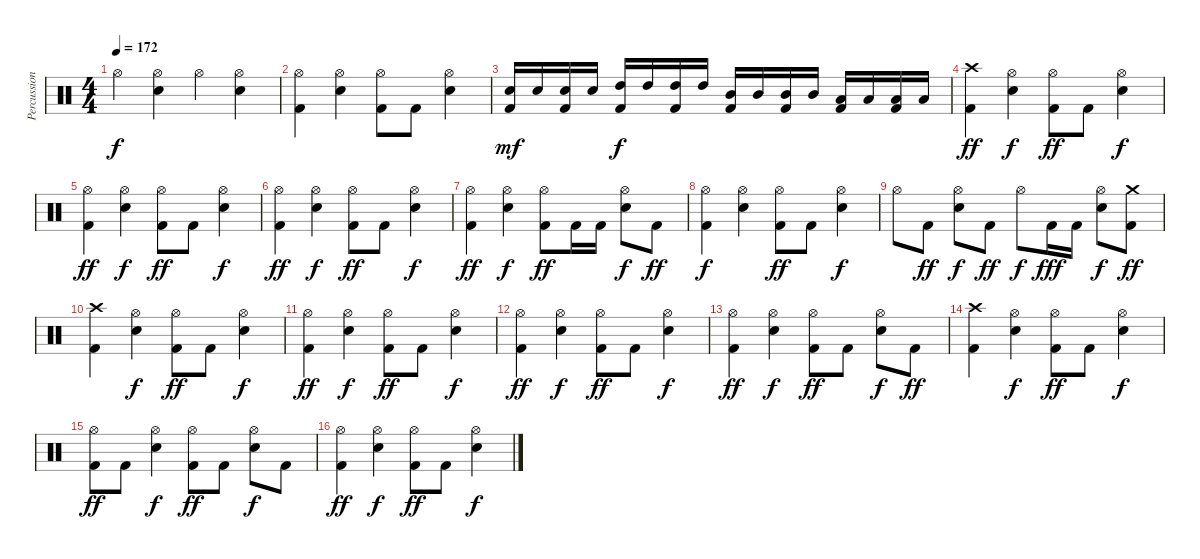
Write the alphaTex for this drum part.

\track ("Percussion" "Percussion") {instrument percussion}
\staff {score}
\articulation defaults
\ts (4 4)
\tempo 172
\clef neutral
\ks c "Hi-Hat (open)".4{dy f}
("Hi-Hat (open)" "Snare (hit) 2").4 "Hi-Hat (open)".4 ("Hi-Hat (open)" "Snare (hit) 2").4 |
("Hi-Hat (open)" "Kick (hit) 2").4 ("Hi-Hat (open)" "Snare (hit) 2").4 ("Hi-Hat (open)" "Kick (hit) 2").8 "Kick (hit) 2".8 ("Hi-Hat (open)" "Snare (hit) 2").4 |
("Snare (hit) 2" "Kick (hit) 2").16{dy mf} "Snare (hit) 2".16 ("Snare (hit) 2" "Kick (hit) 2").16 "Snare (hit) 2".16 ("High Tom (hit)" "Kick (hit) 2").16{dy f} "High Tom (hit)".16 ("High Tom (hit)" "Kick (hit) 2").16 "High Tom (hit)".16 ("Mid Tom (hit)" "Kick (hit) 2").16 "Mid Tom (hit)".16 ("Mid Tom (hit)" "Kick (hit) 2").16 "Mid Tom (hit)".16 ("Low Tom (hit)" "Kick (hit) 2").16 "Low Tom (hit)".16 ("Low Tom (hit)" "Kick (hit) 2").16 "Low Tom (hit)".16 |
("Crash high (hit)" "Kick (hit) 2").4{dy ff} ("Hi-Hat (open)" "Snare (hit) 2").4{dy f} ("Hi-Hat (open)" "Kick (hit) 2").8{dy ff} "Kick (hit) 2".8 ("Hi-Hat (open)" "Snare (hit) 2").4{dy f} |
("Hi-Hat (open)" "Kick (hit) 2").4{dy ff} ("Hi-Hat (open)" "Snare (hit) 2").4{dy f} ("Hi-Hat (open)" "Kick (hit) 2").8{dy ff} "Kick (hit) 2".8 ("Hi-Hat (open)" "Snare (hit) 2").4{dy f} |
("Hi-Hat (open)" "Kick (hit) 2").4{dy ff} ("Hi-Hat (open)" "Snare (hit) 2").4{dy f} ("Hi-Hat (open)" "Kick (hit) 2").8{dy ff} "Kick (hit) 2".8 ("Hi-Hat (open)" "Snare (hit) 2").4{dy f} |
("Hi-Hat (open)" "Kick (hit) 2").4{dy ff} ("Hi-Hat (open)" "Snare (hit) 2").4{dy f} ("Hi-Hat (open)" "Kick (hit) 2").8{dy ff} "Kick (hit) 2".16 "Kick (hit) 2".16 ("Hi-Hat (open)" "Snare (hit) 2").8{dy f} "Kick (hit) 2".8{dy ff} |
("Hi-Hat (open)" "Kick (hit) 2").4{dy f} ("Hi-Hat (open)" "Snare (hit) 2").4 ("Hi-Hat (open)" "Kick (hit) 2").8{dy ff} "Kick (hit) 2".8 ("Hi-Hat (open)" "Snare (hit) 2").4{dy f} |
"Hi-Hat (open)".8 "Kick (hit) 2".8{dy ff} ("Hi-Hat (open)" "Snare (hit) 2").8{dy f} "Kick (hit) 2".8{dy ff} "Hi-Hat (open)".8{dy f} "Kick (hit) 2".16{dy fff} "Kick (hit) 2".16 ("Hi-Hat (open)" "Snare (hit) 2").8{dy f} ("Crash medium (hit)" "Kick (hit) 2").8{dy ff} |
("Crash high (hit)" "Kick (hit) 2").4 ("Hi-Hat (open)" "Snare (hit) 2").4{dy f} ("Hi-Hat (open)" "Kick (hit) 2").8{dy ff} "Kick (hit) 2".8 ("Hi-Hat (open)" "Snare (hit) 2").4{dy f} |
("Hi-Hat (open)" "Kick (hit) 2").4{dy ff} ("Hi-Hat (open)" "Snare (hit) 2").4{dy f} ("Hi-Hat (open)" "Kick (hit) 2").8{dy ff} "Kick (hit) 2".8 ("Hi-Hat (open)" "Snare (hit) 2").4{dy f} |
("Hi-Hat (open)" "Kick (hit) 2").4{dy ff} ("Hi-Hat (open)" "Snare (hit) 2").4{dy f} ("Hi-Hat (open)" "Kick (hit) 2").8{dy ff} "Kick (hit) 2".8 ("Hi-Hat (open)" "Snare (hit) 2").4{dy f} |
("Hi-Hat (open)" "Kick (hit) 2").4{dy ff} ("Hi-Hat (open)" "Snare (hit) 2").4{dy f} ("Hi-Hat (open)" "Kick (hit) 2").8{dy ff} "Kick (hit) 2".8 ("Hi-Hat (open)" "Snare (hit) 2").8{dy f} "Kick (hit) 2".8{dy ff} |
("Crash high (hit)" "Kick (hit) 2").4 ("Hi-Hat (open)" "Snare (hit) 2").4{dy f} ("Hi-Hat (open)" "Kick (hit) 2").8{dy ff} "Kick (hit) 2".8 ("Hi-Hat (open)" "Snare (hit) 2").4{dy f} |
("Hi-Hat (open)" "Kick (hit) 2").8{dy ff} "Kick (hit) 2".8 ("Hi-Hat (open)" "Snare (hit) 2").4{dy f} ("Hi-Hat (open)" "Kick (hit) 2").8{dy ff} "Kick (hit) 2".8 ("Hi-Hat (open)" "Snare (hit) 2").8{dy f} "Kick (hit) 2".8 |
("Hi-Hat (open)" "Kick (hit) 2").4{dy ff} ("Hi-Hat (open)" "Snare (hit) 2").4{dy f} ("Hi-Hat (open)" "Kick (hit) 2").8{dy ff} "Kick (hit) 2".8 ("Hi-Hat (open)" "Snare (hit) 2").4{dy f}
